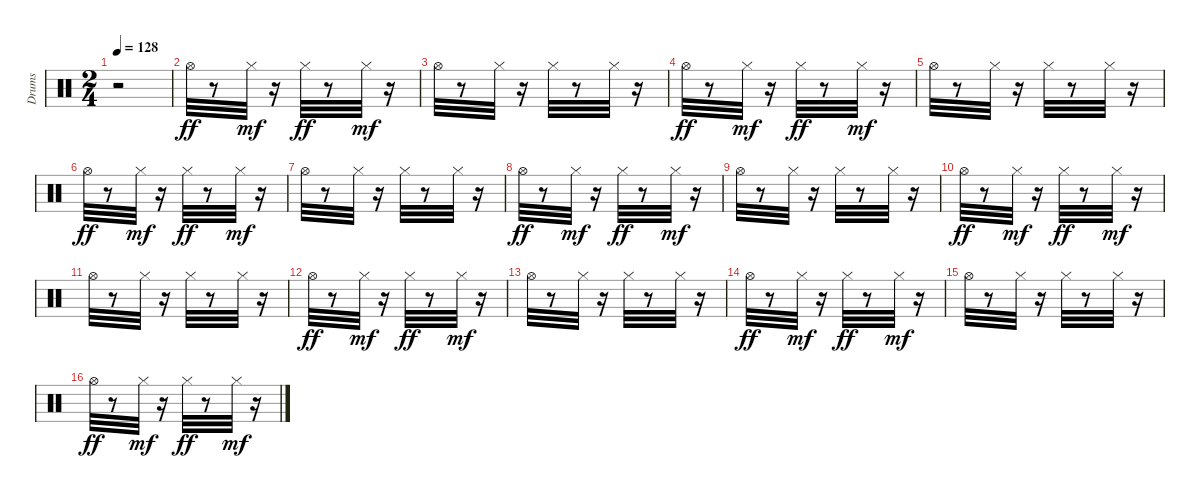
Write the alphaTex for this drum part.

\track ("Drums" "Drums") {instrument percussion}
\staff {score}
\articulation defaults
\ts (2 4)
\tempo 128
\clef neutral
\ks c
r.2{dy ff} |
"Hi-Hat (open)".32 r.8 "Hi-Hat (closed)".32{dy mf} r.16 "Hi-Hat (closed)".32{dy ff} r.8 "Hi-Hat (closed)".32{dy mf} r.16 |
"Hi-Hat (open)".32 r.8 "Hi-Hat (closed)".32 r.16 "Hi-Hat (closed)".32 r.8 "Hi-Hat (closed)".32 r.16 |
"Hi-Hat (open)".32{dy ff} r.8 "Hi-Hat (closed)".32{dy mf} r.16 "Hi-Hat (closed)".32{dy ff} r.8 "Hi-Hat (closed)".32{dy mf} r.16 |
"Hi-Hat (open)".32 r.8 "Hi-Hat (closed)".32 r.16 "Hi-Hat (closed)".32 r.8 "Hi-Hat (closed)".32 r.16 |
"Hi-Hat (open)".32{dy ff} r.8 "Hi-Hat (closed)".32{dy mf} r.16 "Hi-Hat (closed)".32{dy ff} r.8 "Hi-Hat (closed)".32{dy mf} r.16 |
"Hi-Hat (open)".32 r.8 "Hi-Hat (closed)".32 r.16 "Hi-Hat (closed)".32 r.8 "Hi-Hat (closed)".32 r.16 |
"Hi-Hat (open)".32{dy ff} r.8 "Hi-Hat (closed)".32{dy mf} r.16 "Hi-Hat (closed)".32{dy ff} r.8 "Hi-Hat (closed)".32{dy mf} r.16 |
"Hi-Hat (open)".32 r.8 "Hi-Hat (closed)".32 r.16 "Hi-Hat (closed)".32 r.8 "Hi-Hat (closed)".32 r.16 |
"Hi-Hat (open)".32{dy ff} r.8 "Hi-Hat (closed)".32{dy mf} r.16 "Hi-Hat (closed)".32{dy ff} r.8 "Hi-Hat (closed)".32{dy mf} r.16 |
"Hi-Hat (open)".32 r.8 "Hi-Hat (closed)".32 r.16 "Hi-Hat (closed)".32 r.8 "Hi-Hat (closed)".32 r.16 |
"Hi-Hat (open)".32{dy ff} r.8 "Hi-Hat (closed)".32{dy mf} r.16 "Hi-Hat (closed)".32{dy ff} r.8 "Hi-Hat (closed)".32{dy mf} r.16 |
"Hi-Hat (open)".32 r.8 "Hi-Hat (closed)".32 r.16 "Hi-Hat (closed)".32 r.8 "Hi-Hat (closed)".32 r.16 |
"Hi-Hat (open)".32{dy ff} r.8 "Hi-Hat (closed)".32{dy mf} r.16 "Hi-Hat (closed)".32{dy ff} r.8 "Hi-Hat (closed)".32{dy mf} r.16 |
"Hi-Hat (open)".32 r.8 "Hi-Hat (closed)".32 r.16 "Hi-Hat (closed)".32 r.8 "Hi-Hat (closed)".32 r.16 |
"Hi-Hat (open)".32{dy ff} r.8 "Hi-Hat (closed)".32{dy mf} r.16 "Hi-Hat (closed)".32{dy ff} r.8 "Hi-Hat (closed)".32{dy mf} r.16
